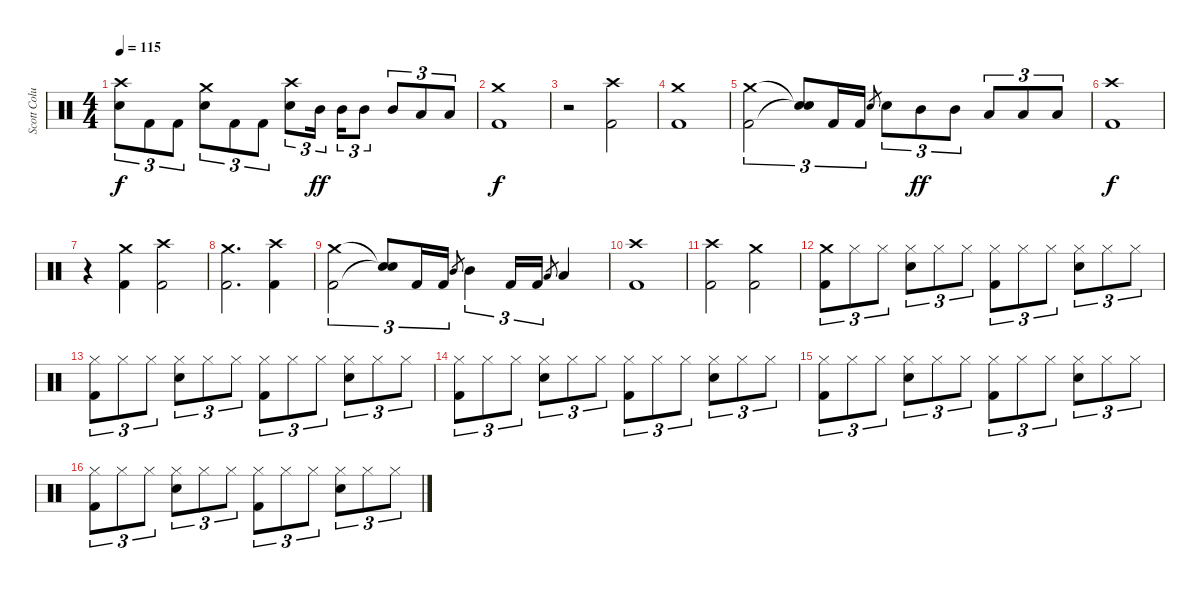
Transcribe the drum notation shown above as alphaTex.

\track ("Scott Columus(Drums)" "Scott Colu") {instrument percussion}
\staff {score}
\articulation defaults
\ts (4 4)
\tempo 115
\clef neutral
\ks c
("Crash high (hit)" "Snare (hit) 2").8{tu (3 2) dy f} "Kick (hit) 2".8{tu (3 2)} "Kick (hit) 2".8{tu (3 2)} ("Crash medium (hit)" "Snare (hit) 2").8{tu (3 2)} "Kick (hit) 2".8{tu (3 2)} "Kick (hit) 2".8{tu (3 2)} ("Crash high (hit)" "Snare (hit) 2").8{tu (3 2)} "Mid Tom (hit)".16{tu (3 2) dy ff} "Mid Tom (hit)".16{tu (3 2)} "Mid Tom (hit)".8{tu (3 2)} "Mid Tom (hit)".8{tu (3 2)} "Low Tom (hit)".8{tu (3 2)} "Low Tom (hit)".8{tu (3 2)} |
("Crash medium (hit)" "Kick (hit) 2").1{dy f} |
r.2 ("Crash high (hit)" "Kick (hit) 2").2 |
("Crash medium (hit)" "Kick (hit) 2").1 |
("Crash medium (hit)" "Kick (hit) 2").2{tu (3 2)} ("Snare (hit)"{t} "Snare (hit)"{t}).8{tu (3 2)} "Kick (hit) 2".16{tu (3 2)} "Kick (hit) 2".16{tu (3 2)} "Snare (hit) 2".8{gr} "Snare (hit) 2".8{tu (3 2)} "Mid Tom (hit)".8{tu (3 2) dy ff} "Mid Tom (hit)".8{tu (3 2)} "Low Tom (hit)".8{tu (3 2)} "Low Tom (hit)".8{tu (3 2)} "Low Tom (hit)".8{tu (3 2)} |
("Crash high (hit)" "Kick (hit) 2").1{dy f} |
r.4 ("Crash medium (hit)" "Kick (hit) 2").4 ("Crash high (hit)" "Kick (hit) 2").2 |
("Crash medium (hit)" "Kick (hit) 2").2{d} ("Crash high (hit)" "Kick (hit) 2").4 |
("Crash medium (hit)" "Kick (hit) 2").2{tu (3 2)} ("Snare (hit)"{t} "Snare (hit)"{t}).8{tu (3 2)} "Kick (hit) 2".16{tu (3 2)} "Kick (hit) 2".16{tu (3 2)} "Mid Tom (hit)".8{gr} "Mid Tom (hit)".4{tu (3 2)} "Kick (hit) 2".16{tu (3 2)} "Kick (hit) 2".16{tu (3 2)} "Low Tom (hit)".8{gr} "Low Tom (hit)".4 |
("Crash high (hit)" "Kick (hit) 2").1 |
("Crash high (hit)" "Kick (hit) 2").2 ("Crash medium (hit)" "Kick (hit) 2").2 |
("Crash medium (hit)" "Kick (hit) 2").8{tu (3 2)} "Hi-Hat (closed)".8{tu (3 2)} "Hi-Hat (closed)".8{tu (3 2)} ("Hi-Hat (closed)" "Snare (hit) 2").8{tu (3 2)} "Hi-Hat (closed)".8{tu (3 2)} "Hi-Hat (closed)".8{tu (3 2)} ("Hi-Hat (closed)" "Kick (hit) 2").8{tu (3 2)} "Hi-Hat (closed)".8{tu (3 2)} "Hi-Hat (closed)".8{tu (3 2)} ("Hi-Hat (closed)" "Snare (hit) 2").8{tu (3 2)} "Hi-Hat (closed)".8{tu (3 2)} "Hi-Hat (closed)".8{tu (3 2)} |
("Hi-Hat (closed)" "Kick (hit) 2").8{tu (3 2)} "Hi-Hat (closed)".8{tu (3 2)} "Hi-Hat (closed)".8{tu (3 2)} ("Hi-Hat (closed)" "Snare (hit) 2").8{tu (3 2)} "Hi-Hat (closed)".8{tu (3 2)} "Hi-Hat (closed)".8{tu (3 2)} ("Hi-Hat (closed)" "Kick (hit) 2").8{tu (3 2)} "Hi-Hat (closed)".8{tu (3 2)} "Hi-Hat (closed)".8{tu (3 2)} ("Hi-Hat (closed)" "Snare (hit) 2").8{tu (3 2)} "Hi-Hat (closed)".8{tu (3 2)} "Hi-Hat (closed)".8{tu (3 2)} |
("Hi-Hat (closed)" "Kick (hit) 2").8{tu (3 2)} "Hi-Hat (closed)".8{tu (3 2)} "Hi-Hat (closed)".8{tu (3 2)} ("Hi-Hat (closed)" "Snare (hit) 2").8{tu (3 2)} "Hi-Hat (closed)".8{tu (3 2)} "Hi-Hat (closed)".8{tu (3 2)} ("Hi-Hat (closed)" "Kick (hit) 2").8{tu (3 2)} "Hi-Hat (closed)".8{tu (3 2)} "Hi-Hat (closed)".8{tu (3 2)} ("Hi-Hat (closed)" "Snare (hit) 2").8{tu (3 2)} "Hi-Hat (closed)".8{tu (3 2)} "Hi-Hat (closed)".8{tu (3 2)} |
("Hi-Hat (closed)" "Kick (hit) 2").8{tu (3 2)} "Hi-Hat (closed)".8{tu (3 2)} "Hi-Hat (closed)".8{tu (3 2)} ("Hi-Hat (closed)" "Snare (hit) 2").8{tu (3 2)} "Hi-Hat (closed)".8{tu (3 2)} "Hi-Hat (closed)".8{tu (3 2)} ("Hi-Hat (closed)" "Kick (hit) 2").8{tu (3 2)} "Hi-Hat (closed)".8{tu (3 2)} "Hi-Hat (closed)".8{tu (3 2)} ("Hi-Hat (closed)" "Snare (hit) 2").8{tu (3 2)} "Hi-Hat (closed)".8{tu (3 2)} "Hi-Hat (closed)".8{tu (3 2)} |
("Hi-Hat (closed)" "Kick (hit) 2").8{tu (3 2)} "Hi-Hat (closed)".8{tu (3 2)} "Hi-Hat (closed)".8{tu (3 2)} ("Hi-Hat (closed)" "Snare (hit) 2").8{tu (3 2)} "Hi-Hat (closed)".8{tu (3 2)} "Hi-Hat (closed)".8{tu (3 2)} ("Hi-Hat (closed)" "Kick (hit) 2").8{tu (3 2)} "Hi-Hat (closed)".8{tu (3 2)} "Hi-Hat (closed)".8{tu (3 2)} ("Hi-Hat (closed)" "Snare (hit) 2").8{tu (3 2)} "Hi-Hat (closed)".8{tu (3 2)} "Hi-Hat (closed)".8{tu (3 2)}
